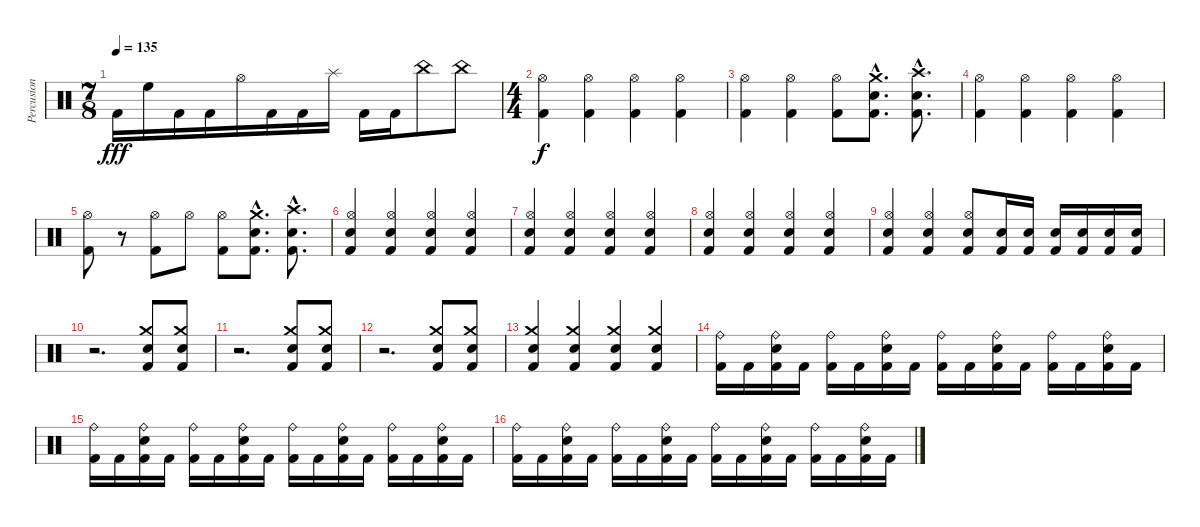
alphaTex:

\track ("Percusion" "Percusion") {instrument percussion}
\staff {score}
\articulation defaults
\ts (7 8)
\tempo 135
\clef neutral
\ks c "Kick (hit) 2".16{dy fff} "High Floor Tom (hit)".16 "Kick (hit) 2".16 "Kick (hit) 2".16 "Hi-Hat (open)".16 "Kick (hit) 2".16 "Kick (hit) 2".16 "Splash (hit)".16 "Kick (hit) 2".16 "Kick (hit) 2".16 "China (hit)".8 "China (hit)".8
|
\ts (4 4)
("Hi-Hat (open)" "Kick (hit) 2").4{dy f} ("Hi-Hat (open)" "Kick (hit) 2").4 ("Hi-Hat (open)" "Kick (hit) 2").4 ("Hi-Hat (open)" "Kick (hit) 2").4 |
("Hi-Hat (open)" "Kick (hit) 2").4 ("Hi-Hat (open)" "Kick (hit) 2").4 ("Hi-Hat (open)" "Kick (hit) 2").8 ("Crash medium (hit)"{hac} "Electric Snare (hit)"{hac} "Kick (hit) 2"{hac}).8{d} ("Crash high (hit)"{hac} "Electric Snare (hit)"{hac} "Kick (hit) 2"{hac}).8{d} |
("Hi-Hat (open)" "Kick (hit) 2").4 ("Hi-Hat (open)" "Kick (hit) 2").4 ("Hi-Hat (open)" "Kick (hit) 2").4 ("Hi-Hat (open)" "Kick (hit) 2").4 |
("Hi-Hat (open)" "Kick (hit) 2").8 r.8 ("Hi-Hat (open)" "Kick (hit) 2").8 "Hi-Hat (open)".8 ("Hi-Hat (open)" "Kick (hit) 2").8 ("Crash medium (hit)"{hac} "Electric Snare (hit)"{hac} "Kick (hit) 2"{hac}).8{d} ("Crash high (hit)"{hac} "Electric Snare (hit)"{hac} "Kick (hit) 2"{hac}).8{d} |
("Hi-Hat (open)" "Snare (hit) 2" "Kick (hit) 2").4 ("Hi-Hat (open)" "Snare (hit) 2" "Kick (hit) 2").4 ("Hi-Hat (open)" "Snare (hit) 2" "Kick (hit) 2").4 ("Hi-Hat (open)" "Snare (hit) 2" "Kick (hit) 2").4 |
("Hi-Hat (open)" "Snare (hit) 2" "Kick (hit) 2").4 ("Hi-Hat (open)" "Snare (hit) 2" "Kick (hit) 2").4 ("Hi-Hat (open)" "Snare (hit) 2" "Kick (hit) 2").4 ("Hi-Hat (open)" "Snare (hit) 2" "Kick (hit) 2").4 |
("Hi-Hat (open)" "Snare (hit) 2" "Kick (hit) 2").4 ("Hi-Hat (open)" "Snare (hit) 2" "Kick (hit) 2").4 ("Hi-Hat (open)" "Snare (hit) 2" "Kick (hit) 2").4 ("Hi-Hat (open)" "Snare (hit) 2" "Kick (hit) 2").4 |
("Hi-Hat (open)" "Snare (hit) 2" "Kick (hit) 2").4 ("Hi-Hat (open)" "Snare (hit) 2" "Kick (hit) 2").4 ("Hi-Hat (open)" "Snare (hit) 2" "Kick (hit) 2").8 ("Snare (hit) 2" "Kick (hit) 2").16 ("Snare (hit) 2" "Kick (hit) 2").16 ("Snare (hit) 2" "Kick (hit) 2").16 ("Snare (hit) 2" "Kick (hit) 2").16 ("Snare (hit) 2" "Kick (hit) 2").16 ("Snare (hit) 2" "Kick (hit) 2").16 |
r.2{d} ("Crash medium (hit)" "Snare (hit) 2" "Kick (hit) 2").8 ("Crash medium (hit)" "Snare (hit) 2" "Kick (hit) 2").8 |
r.2{d} ("Crash medium (hit)" "Snare (hit) 2" "Kick (hit) 2").8 ("Crash medium (hit)" "Snare (hit) 2" "Kick (hit) 2").8 |
r.2{d} ("Crash medium (hit)" "Snare (hit) 2" "Kick (hit) 2").8 ("Crash medium (hit)" "Snare (hit) 2" "Kick (hit) 2").8 |
("Crash medium (hit)" "Snare (hit) 2" "Kick (hit) 2").4 ("Crash medium (hit)" "Snare (hit) 2" "Kick (hit) 2").4 ("Crash medium (hit)" "Snare (hit) 2" "Kick (hit) 2").4 ("Crash medium (hit)" "Snare (hit) 2" "Kick (hit) 2").4 |
("Ride (bell)" "Kick (hit) 2").16 "Kick (hit) 2".16 ("Ride (bell)" "Snare (hit) 2" "Kick (hit) 2").16 "Kick (hit) 2".16 ("Ride (bell)" "Kick (hit) 2").16 "Kick (hit) 2".16 ("Ride (bell)" "Snare (hit) 2" "Kick (hit) 2").16 "Kick (hit) 2".16 ("Ride (bell)" "Kick (hit) 2").16 "Kick (hit) 2".16 ("Ride (bell)" "Snare (hit) 2" "Kick (hit) 2").16 "Kick (hit) 2".16 ("Ride (bell)" "Kick (hit) 2").16 "Kick (hit) 2".16 ("Ride (bell)" "Snare (hit) 2" "Kick (hit) 2").16 "Kick (hit) 2".16 |
("Ride (bell)" "Kick (hit) 2").16 "Kick (hit) 2".16 ("Ride (bell)" "Snare (hit) 2" "Kick (hit) 2").16 "Kick (hit) 2".16 ("Ride (bell)" "Kick (hit) 2").16 "Kick (hit) 2".16 ("Ride (bell)" "Snare (hit) 2" "Kick (hit) 2").16 "Kick (hit) 2".16 ("Ride (bell)" "Kick (hit) 2").16 "Kick (hit) 2".16 ("Ride (bell)" "Snare (hit) 2" "Kick (hit) 2").16 "Kick (hit) 2".16 ("Ride (bell)" "Kick (hit) 2").16 "Kick (hit) 2".16 ("Ride (bell)" "Snare (hit) 2" "Kick (hit) 2").16 "Kick (hit) 2".16 |
("Ride (bell)" "Kick (hit) 2").16 "Kick (hit) 2".16 ("Ride (bell)" "Snare (hit) 2" "Kick (hit) 2").16 "Kick (hit) 2".16 ("Ride (bell)" "Kick (hit) 2").16 "Kick (hit) 2".16 ("Ride (bell)" "Snare (hit) 2" "Kick (hit) 2").16 "Kick (hit) 2".16 ("Ride (bell)" "Kick (hit) 2").16 "Kick (hit) 2".16 ("Ride (bell)" "Snare (hit) 2" "Kick (hit) 2").16 "Kick (hit) 2".16 ("Ride (bell)" "Kick (hit) 2").16 "Kick (hit) 2".16 ("Ride (bell)" "Snare (hit) 2" "Kick (hit) 2").16 "Kick (hit) 2".16
